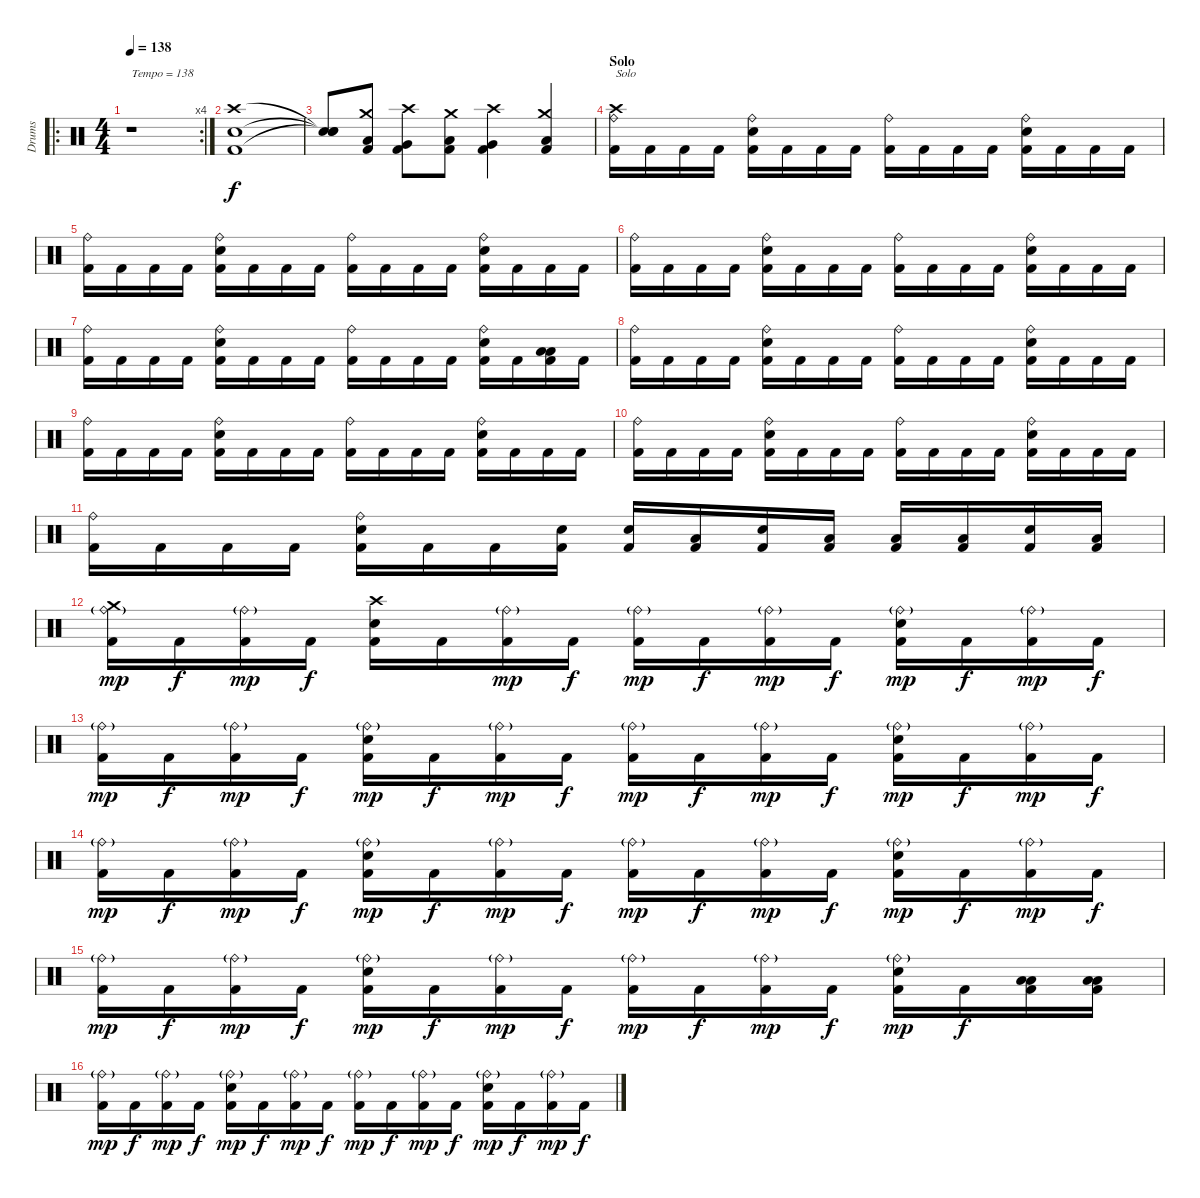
\track ("Drums" "Drums") {instrument percussion}
\staff {score}
\articulation defaults
\ro
\rc 4
\ts (4 4)
\tempo 138
\clef neutral
\ks c
r.1{txt "Tempo = 138" dy f} |
("Crash high (hit)" "Electric Snare (hit)" "Kick (hit) 2").1 |
("Snare (hit)"{t} "Snare (hit)"{t} "Snare (hit)"{t}).8 ("Crash medium (hit)" "Low Floor Tom (hit)" "Kick (hit) 2").8 ("Crash high (hit)" "Very Low Tom (hit)" "Kick (hit) 2").8 ("Crash medium (hit)" "Low Floor Tom (hit)" "Kick (hit) 2").8 ("Crash high (hit)" "Very Low Tom (hit)" "Kick (hit) 2").4 ("Crash medium (hit)" "Low Floor Tom (hit)" "Kick (hit) 2").4 |
\section ("" "Solo")
("Crash high (hit)" "Ride (bell)" "Kick (hit) 2").16{txt "Solo"} "Kick (hit) 2".16 "Kick (hit) 2".16 "Kick (hit) 2".16 ("Ride (bell)" "Electric Snare (hit)" "Kick (hit) 2").16 "Kick (hit) 2".16 "Kick (hit) 2".16 "Kick (hit) 2".16 ("Ride (bell)" "Kick (hit) 2").16 "Kick (hit) 2".16 "Kick (hit) 2".16 "Kick (hit) 2".16 ("Ride (bell)" "Electric Snare (hit)" "Kick (hit) 2").16 "Kick (hit) 2".16 "Kick (hit) 2".16 "Kick (hit) 2".16 |
("Ride (bell)" "Kick (hit) 2").16 "Kick (hit) 2".16 "Kick (hit) 2".16 "Kick (hit) 2".16 ("Ride (bell)" "Electric Snare (hit)" "Kick (hit) 2").16 "Kick (hit) 2".16 "Kick (hit) 2".16 "Kick (hit) 2".16 ("Ride (bell)" "Kick (hit) 2").16 "Kick (hit) 2".16 "Kick (hit) 2".16 "Kick (hit) 2".16 ("Ride (bell)" "Electric Snare (hit)" "Kick (hit) 2").16 "Kick (hit) 2".16 "Kick (hit) 2".16 "Kick (hit) 2".16 |
("Ride (bell)" "Kick (hit) 2").16 "Kick (hit) 2".16 "Kick (hit) 2".16 "Kick (hit) 2".16 ("Ride (bell)" "Electric Snare (hit)" "Kick (hit) 2").16 "Kick (hit) 2".16 "Kick (hit) 2".16 "Kick (hit) 2".16 ("Ride (bell)" "Kick (hit) 2").16 "Kick (hit) 2".16 "Kick (hit) 2".16 "Kick (hit) 2".16 ("Ride (bell)" "Electric Snare (hit)" "Kick (hit) 2").16 "Kick (hit) 2".16 "Kick (hit) 2".16 "Kick (hit) 2".16 |
("Ride (bell)" "Kick (hit) 2").16 "Kick (hit) 2".16 "Kick (hit) 2".16 "Kick (hit) 2".16 ("Ride (bell)" "Electric Snare (hit)" "Kick (hit) 2").16 "Kick (hit) 2".16 "Kick (hit) 2".16 "Kick (hit) 2".16 ("Ride (bell)" "Kick (hit) 2").16 "Kick (hit) 2".16 "Kick (hit) 2".16 "Kick (hit) 2".16 ("Ride (bell)" "Electric Snare (hit)" "Kick (hit) 2").16 "Kick (hit) 2".16 ("Low Floor Tom (hit)" "Low Floor Tom (hit)" "Kick (hit) 2").16 "Kick (hit) 2".16 |
("Ride (bell)" "Kick (hit) 2").16 "Kick (hit) 2".16 "Kick (hit) 2".16 "Kick (hit) 2".16 ("Ride (bell)" "Electric Snare (hit)" "Kick (hit) 2").16 "Kick (hit) 2".16 "Kick (hit) 2".16 "Kick (hit) 2".16 ("Ride (bell)" "Kick (hit) 2").16 "Kick (hit) 2".16 "Kick (hit) 2".16 "Kick (hit) 2".16 ("Ride (bell)" "Electric Snare (hit)" "Kick (hit) 2").16 "Kick (hit) 2".16 "Kick (hit) 2".16 "Kick (hit) 2".16 |
("Ride (bell)" "Kick (hit) 2").16 "Kick (hit) 2".16 "Kick (hit) 2".16 "Kick (hit) 2".16 ("Ride (bell)" "Electric Snare (hit)" "Kick (hit) 2").16 "Kick (hit) 2".16 "Kick (hit) 2".16 "Kick (hit) 2".16 ("Ride (bell)" "Kick (hit) 2").16 "Kick (hit) 2".16 "Kick (hit) 2".16 "Kick (hit) 2".16 ("Ride (bell)" "Electric Snare (hit)" "Kick (hit) 2").16 "Kick (hit) 2".16 "Kick (hit) 2".16 "Kick (hit) 2".16 |
("Ride (bell)" "Kick (hit) 2").16 "Kick (hit) 2".16 "Kick (hit) 2".16 "Kick (hit) 2".16 ("Ride (bell)" "Electric Snare (hit)" "Kick (hit) 2").16 "Kick (hit) 2".16 "Kick (hit) 2".16 "Kick (hit) 2".16 ("Ride (bell)" "Kick (hit) 2").16 "Kick (hit) 2".16 "Kick (hit) 2".16 "Kick (hit) 2".16 ("Ride (bell)" "Electric Snare (hit)" "Kick (hit) 2").16 "Kick (hit) 2".16 "Kick (hit) 2".16 "Kick (hit) 2".16 |
("Ride (bell)" "Kick (hit) 2").16 "Kick (hit) 2".16 "Kick (hit) 2".16 "Kick (hit) 2".16 ("Ride (bell)" "Electric Snare (hit)" "Kick (hit) 2").16 "Kick (hit) 2".16 "Kick (hit) 2".16 ("Electric Snare (hit)" "Kick (hit) 2").16 ("Electric Snare (hit)" "Kick (hit) 2").16 ("Low Floor Tom (hit)" "Kick (hit) 2").16 ("Electric Snare (hit)" "Kick (hit) 2").16 ("Low Floor Tom (hit)" "Kick (hit) 2").16 ("Low Floor Tom (hit)" "Kick (hit) 2").16 ("Low Floor Tom (hit)" "Kick (hit) 2").16 ("Electric Snare (hit)" "Kick (hit) 2").16 ("Low Floor Tom (hit)" "Kick (hit) 2").16 |
("Crash medium (hit)" "Ride (bell)"{g} "Kick (hit) 2").16{dy mp} "Kick (hit) 2".16{dy f} ("Ride (bell)"{g} "Kick (hit) 2").16{dy mp} "Kick (hit) 2".16{dy f} ("Crash high (hit)" "Electric Snare (hit)" "Kick (hit) 2").16 "Kick (hit) 2".16 ("Ride (bell)"{g} "Kick (hit) 2").16{dy mp} "Kick (hit) 2".16{dy f} ("Ride (bell)"{g} "Kick (hit) 2").16{dy mp} "Kick (hit) 2".16{dy f} ("Ride (bell)"{g} "Kick (hit) 2").16{dy mp} "Kick (hit) 2".16{dy f} ("Ride (bell)"{g} "Electric Snare (hit)" "Kick (hit) 2").16{dy mp} "Kick (hit) 2".16{dy f} ("Ride (bell)"{g} "Kick (hit) 2").16{dy mp} "Kick (hit) 2".16{dy f} |
("Ride (bell)"{g} "Kick (hit) 2").16{dy mp} "Kick (hit) 2".16{dy f} ("Ride (bell)"{g} "Kick (hit) 2").16{dy mp} "Kick (hit) 2".16{dy f} ("Ride (bell)"{g} "Electric Snare (hit)" "Kick (hit) 2").16{dy mp} "Kick (hit) 2".16{dy f} ("Ride (bell)"{g} "Kick (hit) 2").16{dy mp} "Kick (hit) 2".16{dy f} ("Ride (bell)"{g} "Kick (hit) 2").16{dy mp} "Kick (hit) 2".16{dy f} ("Ride (bell)"{g} "Kick (hit) 2").16{dy mp} "Kick (hit) 2".16{dy f} ("Ride (bell)"{g} "Electric Snare (hit)" "Kick (hit) 2").16{dy mp} "Kick (hit) 2".16{dy f} ("Ride (bell)"{g} "Kick (hit) 2").16{dy mp} "Kick (hit) 2".16{dy f} |
("Ride (bell)"{g} "Kick (hit) 2").16{dy mp} "Kick (hit) 2".16{dy f} ("Ride (bell)"{g} "Kick (hit) 2").16{dy mp} "Kick (hit) 2".16{dy f} ("Ride (bell)"{g} "Electric Snare (hit)" "Kick (hit) 2").16{dy mp} "Kick (hit) 2".16{dy f} ("Ride (bell)"{g} "Kick (hit) 2").16{dy mp} "Kick (hit) 2".16{dy f} ("Ride (bell)"{g} "Kick (hit) 2").16{dy mp} "Kick (hit) 2".16{dy f} ("Ride (bell)"{g} "Kick (hit) 2").16{dy mp} "Kick (hit) 2".16{dy f} ("Ride (bell)"{g} "Electric Snare (hit)" "Kick (hit) 2").16{dy mp} "Kick (hit) 2".16{dy f} ("Ride (bell)"{g} "Kick (hit) 2").16{dy mp} "Kick (hit) 2".16{dy f} |
("Ride (bell)"{g} "Kick (hit) 2").16{dy mp} "Kick (hit) 2".16{dy f} ("Ride (bell)"{g} "Kick (hit) 2").16{dy mp} "Kick (hit) 2".16{dy f} ("Ride (bell)"{g} "Electric Snare (hit)" "Kick (hit) 2").16{dy mp} "Kick (hit) 2".16{dy f} ("Ride (bell)"{g} "Kick (hit) 2").16{dy mp} "Kick (hit) 2".16{dy f} ("Ride (bell)"{g} "Kick (hit) 2").16{dy mp} "Kick (hit) 2".16{dy f} ("Ride (bell)"{g} "Kick (hit) 2").16{dy mp} "Kick (hit) 2".16{dy f} ("Ride (bell)"{g} "Electric Snare (hit)" "Kick (hit) 2").16{dy mp} "Kick (hit) 2".16{dy f} ("Low Floor Tom (hit)" "Low Floor Tom (hit)" "Kick (hit) 2").16 ("Low Floor Tom (hit)" "Low Floor Tom (hit)" "Kick (hit) 2").16 |
("Ride (bell)"{g} "Kick (hit) 2").16{dy mp} "Kick (hit) 2".16{dy f} ("Ride (bell)"{g} "Kick (hit) 2").16{dy mp} "Kick (hit) 2".16{dy f} ("Ride (bell)"{g} "Electric Snare (hit)" "Kick (hit) 2").16{dy mp} "Kick (hit) 2".16{dy f} ("Ride (bell)"{g} "Kick (hit) 2").16{dy mp} "Kick (hit) 2".16{dy f} ("Ride (bell)"{g} "Kick (hit) 2").16{dy mp} "Kick (hit) 2".16{dy f} ("Ride (bell)"{g} "Kick (hit) 2").16{dy mp} "Kick (hit) 2".16{dy f} ("Ride (bell)"{g} "Electric Snare (hit)" "Kick (hit) 2").16{dy mp} "Kick (hit) 2".16{dy f} ("Ride (bell)"{g} "Kick (hit) 2").16{dy mp} "Kick (hit) 2".16{dy f}
